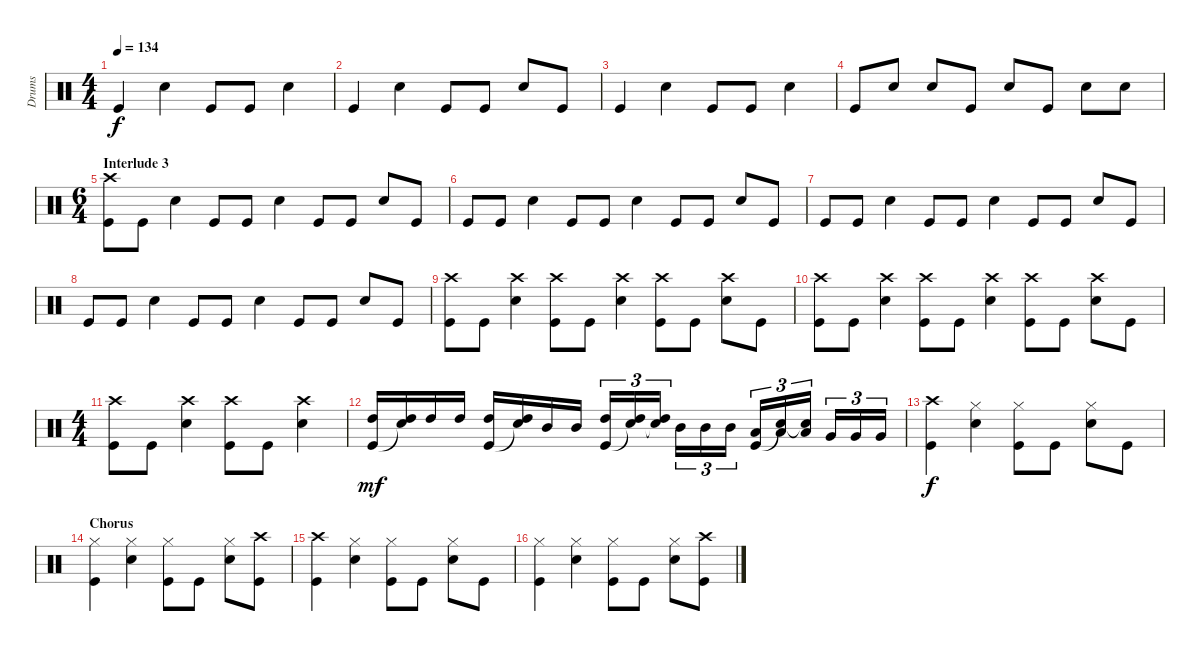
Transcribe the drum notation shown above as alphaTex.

\track ("Drums" "Drums") {instrument percussion}
\staff {score}
\articulation defaults
\ts (4 4)
\tempo 134
\clef neutral
\ks c "Kick (hit)".4{dy f} "Electric Snare (hit)".4 "Kick (hit)".8 "Kick (hit)".8 "Electric Snare (hit)".4
|
"Kick (hit)".4 "Electric Snare (hit)".4 "Kick (hit)".8 "Kick (hit)".8 "Electric Snare (hit)".8 "Kick (hit)".8 |
"Kick (hit)".4 "Electric Snare (hit)".4 "Kick (hit)".8 "Kick (hit)".8 "Electric Snare (hit)".4 |
"Kick (hit)".8 "Electric Snare (hit)".8 "Electric Snare (hit)".8 "Kick (hit)".8 "Electric Snare (hit)".8 "Kick (hit)".8 "Electric Snare (hit)".8 "Electric Snare (hit)".8 |
\ts (6 4)
\section ("" "Interlude 3")
("Crash high (hit)" "Kick (hit)").8 "Kick (hit)".8 "Electric Snare (hit)".4 "Kick (hit)".8 "Kick (hit)".8 "Electric Snare (hit)".4 "Kick (hit)".8 "Kick (hit)".8 "Electric Snare (hit)".8 "Kick (hit)".8 |
"Kick (hit)".8 "Kick (hit)".8 "Electric Snare (hit)".4 "Kick (hit)".8 "Kick (hit)".8 "Electric Snare (hit)".4 "Kick (hit)".8 "Kick (hit)".8 "Electric Snare (hit)".8 "Kick (hit)".8 |
"Kick (hit)".8 "Kick (hit)".8 "Electric Snare (hit)".4 "Kick (hit)".8 "Kick (hit)".8 "Electric Snare (hit)".4 "Kick (hit)".8 "Kick (hit)".8 "Electric Snare (hit)".8 "Kick (hit)".8 |
"Kick (hit)".8 "Kick (hit)".8 "Electric Snare (hit)".4 "Kick (hit)".8 "Kick (hit)".8 "Electric Snare (hit)".4 "Kick (hit)".8 "Kick (hit)".8 "Electric Snare (hit)".8 "Kick (hit)".8 |
("Crash high (hit)" "Kick (hit)").8 "Kick (hit)".8 ("Electric Snare (hit)" "Crash high (hit)").4 ("Crash high (hit)" "Kick (hit)").8 "Kick (hit)".8 ("Electric Snare (hit)" "Crash high (hit)").4 ("Crash high (hit)" "Kick (hit)").8 "Kick (hit)".8 ("Electric Snare (hit)" "Crash high (hit)").8 "Kick (hit)".8 |
("Crash high (hit)" "Kick (hit)").8 "Kick (hit)".8 ("Electric Snare (hit)" "Crash high (hit)").4 ("Crash high (hit)" "Kick (hit)").8 "Kick (hit)".8 ("Electric Snare (hit)" "Crash high (hit)").4 ("Crash high (hit)" "Kick (hit)").8 "Kick (hit)".8 ("Electric Snare (hit)" "Crash high (hit)").8 "Kick (hit)".8 |
\ts (4 4)
("Crash high (hit)" "Kick (hit)").8 "Kick (hit)".8 ("Electric Snare (hit)" "Crash high (hit)").4 ("Crash high (hit)" "Kick (hit)").8 "Kick (hit)".8 ("Electric Snare (hit)" "Crash high (hit)").4 |
("High Tom (hit)" "Kick (hit)").16{dy mf} ("High Tom (hit)" "Snare (hit)"{t}).16 "High Tom (hit)".16 "High Tom (hit)".16 ("High Tom (hit)" "Kick (hit)").16 ("High Tom (hit)" "Snare (hit)"{t}).16 "Mid Tom (hit)".16 "Mid Tom (hit)".16 ("High Tom (hit)" "Kick (hit)").16{tu (3 2)} ("High Tom (hit)" "Snare (hit)"{t}).16{tu (3 2)} ("High Tom (hit)" "Snare (hit)"{t}).16{tu (3 2)} "Mid Tom (hit)".16{tu (3 2)} "Mid Tom (hit)".16{tu (3 2)} "Mid Tom (hit)".16{tu (3 2)} ("Low Tom (hit)" "Kick (hit)").16{tu (3 2)} ("Low Tom (hit)" "Snare (hit)"{t}).16{tu (3 2)} ("Low Tom (hit)" "Snare (hit)"{t}).16{tu (3 2)} "Very Low Tom (hit)".16{tu (3 2)} "Very Low Tom (hit)".16{tu (3 2)} "Very Low Tom (hit)".16{tu (3 2)} |
("Crash high (hit)" "Kick (hit)").4{dy f} ("Electric Snare (hit)" "Hi-Hat (closed)").4 ("Hi-Hat (closed)" "Kick (hit)").8 "Kick (hit)".8 ("Electric Snare (hit)" "Hi-Hat (closed)").8 "Kick (hit)".8 |
\section ("" "Chorus")
("Hi-Hat (closed)" "Kick (hit)").4 ("Electric Snare (hit)" "Hi-Hat (closed)").4 ("Hi-Hat (closed)" "Kick (hit)").8 "Kick (hit)".8 ("Electric Snare (hit)" "Hi-Hat (closed)").8 ("Crash high (hit)" "Kick (hit)").8 |
("Crash high (hit)" "Kick (hit)").4 ("Electric Snare (hit)" "Hi-Hat (closed)").4 ("Hi-Hat (closed)" "Kick (hit)").8 "Kick (hit)".8 ("Electric Snare (hit)" "Hi-Hat (closed)").8 "Kick (hit)".8 |
("Hi-Hat (closed)" "Kick (hit)").4 ("Electric Snare (hit)" "Hi-Hat (closed)").4 ("Hi-Hat (closed)" "Kick (hit)").8 "Kick (hit)".8 ("Electric Snare (hit)" "Hi-Hat (closed)").8 ("Crash high (hit)" "Kick (hit)").8
